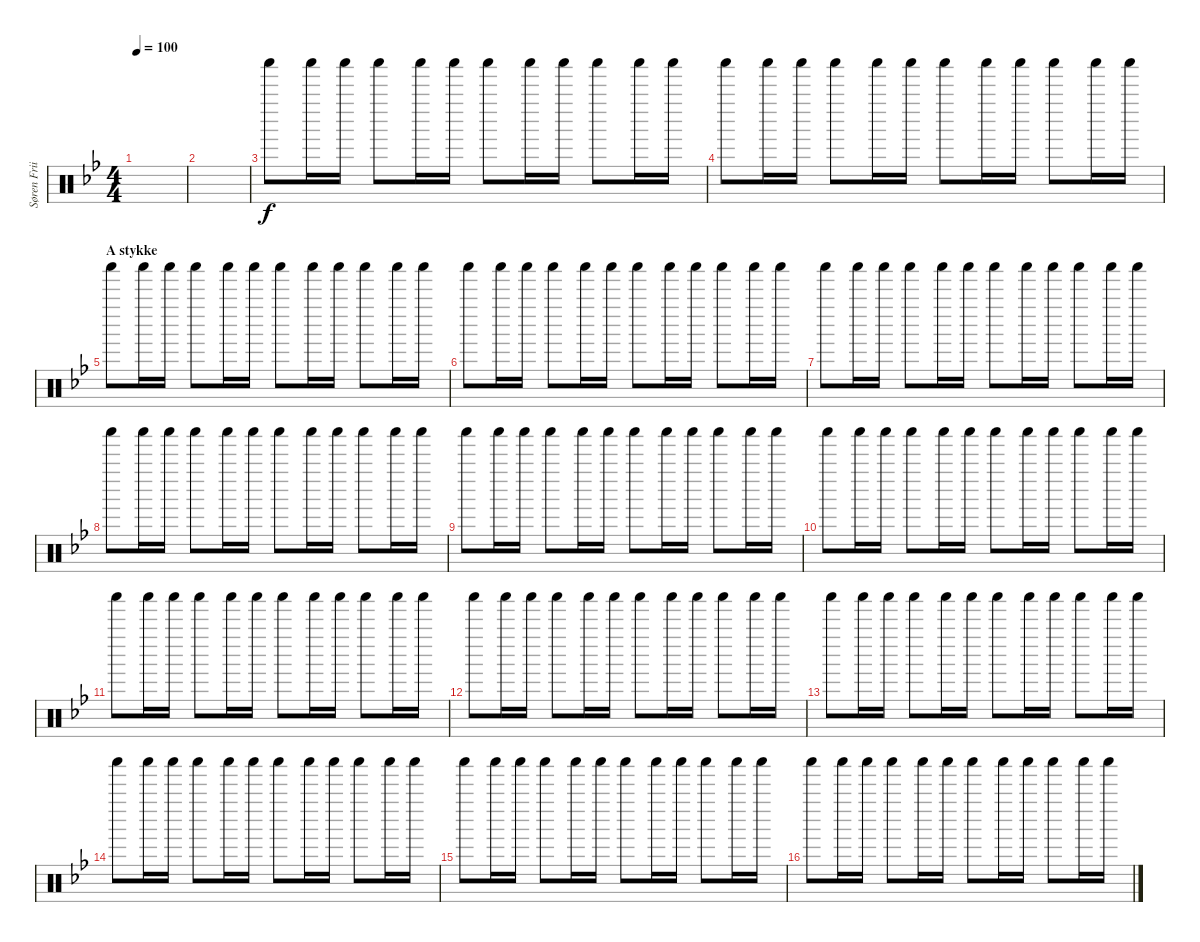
\track ("Søren Friis (Shaker)" "Søren Frii") {instrument percussion}
\staff {score}
\articulation defaults
\ts (4 4)
\tempo 100
\clef neutral
\ks bb
|
|
"Shaker (hit)".8 "Shaker (hit)".16 "Shaker (hit)".16 "Shaker (hit)".8 "Shaker (hit)".16 "Shaker (hit)".16 "Shaker (hit)".8 "Shaker (hit)".16 "Shaker (hit)".16 "Shaker (hit)".8 "Shaker (hit)".16 "Shaker (hit)".16 |
"Shaker (hit)".8 "Shaker (hit)".16 "Shaker (hit)".16 "Shaker (hit)".8 "Shaker (hit)".16 "Shaker (hit)".16 "Shaker (hit)".8 "Shaker (hit)".16 "Shaker (hit)".16 "Shaker (hit)".8 "Shaker (hit)".16 "Shaker (hit)".16 |
\section ("" "A stykke")
"Shaker (hit)".8 "Shaker (hit)".16 "Shaker (hit)".16 "Shaker (hit)".8 "Shaker (hit)".16 "Shaker (hit)".16 "Shaker (hit)".8 "Shaker (hit)".16 "Shaker (hit)".16 "Shaker (hit)".8 "Shaker (hit)".16 "Shaker (hit)".16 |
"Shaker (hit)".8 "Shaker (hit)".16 "Shaker (hit)".16 "Shaker (hit)".8 "Shaker (hit)".16 "Shaker (hit)".16 "Shaker (hit)".8 "Shaker (hit)".16 "Shaker (hit)".16 "Shaker (hit)".8 "Shaker (hit)".16 "Shaker (hit)".16 |
"Shaker (hit)".8 "Shaker (hit)".16 "Shaker (hit)".16 "Shaker (hit)".8 "Shaker (hit)".16 "Shaker (hit)".16 "Shaker (hit)".8 "Shaker (hit)".16 "Shaker (hit)".16 "Shaker (hit)".8 "Shaker (hit)".16 "Shaker (hit)".16 |
"Shaker (hit)".8 "Shaker (hit)".16 "Shaker (hit)".16 "Shaker (hit)".8 "Shaker (hit)".16 "Shaker (hit)".16 "Shaker (hit)".8 "Shaker (hit)".16 "Shaker (hit)".16 "Shaker (hit)".8 "Shaker (hit)".16 "Shaker (hit)".16 |
"Shaker (hit)".8 "Shaker (hit)".16 "Shaker (hit)".16 "Shaker (hit)".8 "Shaker (hit)".16 "Shaker (hit)".16 "Shaker (hit)".8 "Shaker (hit)".16 "Shaker (hit)".16 "Shaker (hit)".8 "Shaker (hit)".16 "Shaker (hit)".16 |
"Shaker (hit)".8 "Shaker (hit)".16 "Shaker (hit)".16 "Shaker (hit)".8 "Shaker (hit)".16 "Shaker (hit)".16 "Shaker (hit)".8 "Shaker (hit)".16 "Shaker (hit)".16 "Shaker (hit)".8 "Shaker (hit)".16 "Shaker (hit)".16 |
"Shaker (hit)".8 "Shaker (hit)".16 "Shaker (hit)".16 "Shaker (hit)".8 "Shaker (hit)".16 "Shaker (hit)".16 "Shaker (hit)".8 "Shaker (hit)".16 "Shaker (hit)".16 "Shaker (hit)".8 "Shaker (hit)".16 "Shaker (hit)".16 |
"Shaker (hit)".8 "Shaker (hit)".16 "Shaker (hit)".16 "Shaker (hit)".8 "Shaker (hit)".16 "Shaker (hit)".16 "Shaker (hit)".8 "Shaker (hit)".16 "Shaker (hit)".16 "Shaker (hit)".8 "Shaker (hit)".16 "Shaker (hit)".16 |
"Shaker (hit)".8 "Shaker (hit)".16 "Shaker (hit)".16 "Shaker (hit)".8 "Shaker (hit)".16 "Shaker (hit)".16 "Shaker (hit)".8 "Shaker (hit)".16 "Shaker (hit)".16 "Shaker (hit)".8 "Shaker (hit)".16 "Shaker (hit)".16 |
"Shaker (hit)".8 "Shaker (hit)".16 "Shaker (hit)".16 "Shaker (hit)".8 "Shaker (hit)".16 "Shaker (hit)".16 "Shaker (hit)".8 "Shaker (hit)".16 "Shaker (hit)".16 "Shaker (hit)".8 "Shaker (hit)".16 "Shaker (hit)".16 |
"Shaker (hit)".8 "Shaker (hit)".16 "Shaker (hit)".16 "Shaker (hit)".8 "Shaker (hit)".16 "Shaker (hit)".16 "Shaker (hit)".8 "Shaker (hit)".16 "Shaker (hit)".16 "Shaker (hit)".8 "Shaker (hit)".16 "Shaker (hit)".16 |
"Shaker (hit)".8 "Shaker (hit)".16 "Shaker (hit)".16 "Shaker (hit)".8 "Shaker (hit)".16 "Shaker (hit)".16 "Shaker (hit)".8 "Shaker (hit)".16 "Shaker (hit)".16 "Shaker (hit)".8 "Shaker (hit)".16 "Shaker (hit)".16
